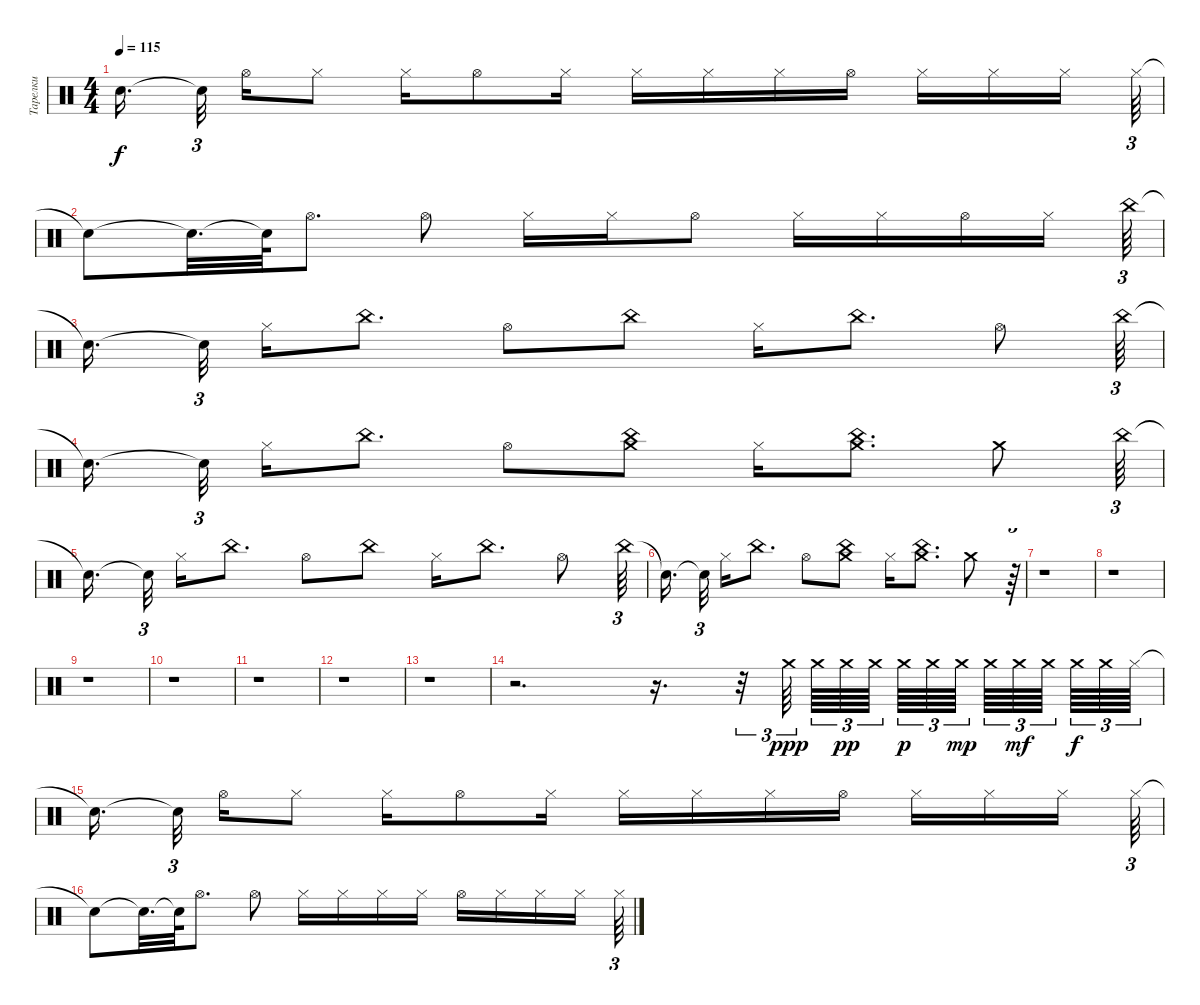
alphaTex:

\track ("Тарелки" "Тарелки") {instrument percussion}
\staff {score}
\articulation defaults
\ts (4 4)
\tempo 115
\clef neutral
\ks c "Snare (hit)"{t}.16{d dy f beam splitsecondary} "Snare (hit)"{t}.32{tu (3 2) beam splitsecondary} "Hi-Hat (open)".16 "Hi-Hat (closed)".8 "Hi-Hat (closed)".16 "Hi-Hat (open)".8 "Hi-Hat (closed)".16 "Hi-Hat (closed)".16 "Hi-Hat (closed)".16 "Hi-Hat (closed)".16 "Hi-Hat (open)".16 "Hi-Hat (closed)".16 "Hi-Hat (closed)".16 "Hi-Hat (closed)".16{beam splitsecondary} "Hi-Hat (closed)".64{tu (3 2)}
|
"Snare (hit)"{t}.8 "Snare (hit)"{t}.32{d} "Snare (hit)"{t}.64 "Hi-Hat (open)".8{d} "Hi-Hat (open)".8 "Hi-Hat (closed)".16 "Hi-Hat (closed)".16 "Hi-Hat (open)".8 "Hi-Hat (closed)".16 "Hi-Hat (closed)".16 "Hi-Hat (open)".16 "Hi-Hat (closed)".16 "China (hit)".64{tu (3 2)} |
"Snare (hit)"{t}.16{d beam splitsecondary} "Snare (hit)"{t}.32{tu (3 2) beam splitsecondary} "Hi-Hat (closed)".16 "China (hit)".8{d} "Hi-Hat (open)".8 "China (hit)".8 "Hi-Hat (closed)".16 "China (hit)".8{d} "Hi-Hat (open)".8 "China (hit)".64{tu (3 2)} |
"Snare (hit)"{t}.16{d beam splitsecondary} "Snare (hit)"{t}.32{tu (3 2) beam splitsecondary} "Hi-Hat (closed)".16 "China (hit)".8{d} "Hi-Hat (open)".8 ("China (hit)" "Crash medium (hit)").8 "Hi-Hat (closed)".16 ("China (hit)" "Crash medium (hit)").8{d} "Crash medium (hit)".8 "China (hit)".64{tu (3 2)} |
"Snare (hit)"{t}.16{d beam splitsecondary} "Snare (hit)"{t}.32{tu (3 2) beam splitsecondary} "Hi-Hat (closed)".16 "China (hit)".8{d} "Hi-Hat (open)".8 "China (hit)".8 "Hi-Hat (closed)".16 "China (hit)".8{d} "Hi-Hat (open)".8 "China (hit)".64{tu (3 2)} |
"Snare (hit)"{t}.16{d beam splitsecondary} "Snare (hit)"{t}.32{tu (3 2) beam splitsecondary} "Hi-Hat (closed)".16 "China (hit)".8{d} "Hi-Hat (open)".8 ("China (hit)" "Crash medium (hit)").8 "Hi-Hat (closed)".16 ("China (hit)" "Crash medium (hit)").8{d} "Crash medium (hit)".8 r.64{tu (3 2)} |
r.1 |
r.1 |
r.1 |
r.1 |
r.1 |
r.1 |
r.1 |
r.2{d} r.16{d} r.32{tu (3 2)} "Crash medium (hit)".64{tu (3 2) dy ppp beam splitsecondary} "Crash medium (hit)".64{tu (3 2)} "Crash medium (hit)".64{tu (3 2) dy pp} "Crash medium (hit)".64{tu (3 2) beam splitsecondary} "Crash medium (hit)".64{tu (3 2) dy p} "Crash medium (hit)".64{tu (3 2)} "Crash medium (hit)".64{tu (3 2) dy mp beam splitsecondary} "Crash medium (hit)".64{tu (3 2)} "Crash medium (hit)".64{tu (3 2) dy mf} "Crash medium (hit)".64{tu (3 2) beam splitsecondary} "Crash medium (hit)".64{tu (3 2) dy f} "Crash medium (hit)".64{tu (3 2)} "Hi-Hat (closed)".64{tu (3 2)} |
"Snare (hit)"{t}.16{d beam splitsecondary} "Snare (hit)"{t}.32{tu (3 2) beam splitsecondary} "Hi-Hat (open)".16 "Hi-Hat (closed)".8 "Hi-Hat (closed)".16 "Hi-Hat (open)".8 "Hi-Hat (closed)".16 "Hi-Hat (closed)".16 "Hi-Hat (closed)".16 "Hi-Hat (closed)".16 "Hi-Hat (open)".16 "Hi-Hat (closed)".16 "Hi-Hat (closed)".16 "Hi-Hat (closed)".16{beam splitsecondary} "Hi-Hat (closed)".64{tu (3 2)} |
"Snare (hit)"{t}.8 "Snare (hit)"{t}.32{d} "Snare (hit)"{t}.64 "Hi-Hat (open)".8{d} "Hi-Hat (open)".8 "Hi-Hat (closed)".16 "Hi-Hat (closed)".16 "Hi-Hat (closed)".16 "Hi-Hat (closed)".16 "Hi-Hat (open)".16 "Hi-Hat (closed)".16 "Hi-Hat (closed)".16 "Hi-Hat (closed)".16 "Hi-Hat (closed)".64{tu (3 2)}
